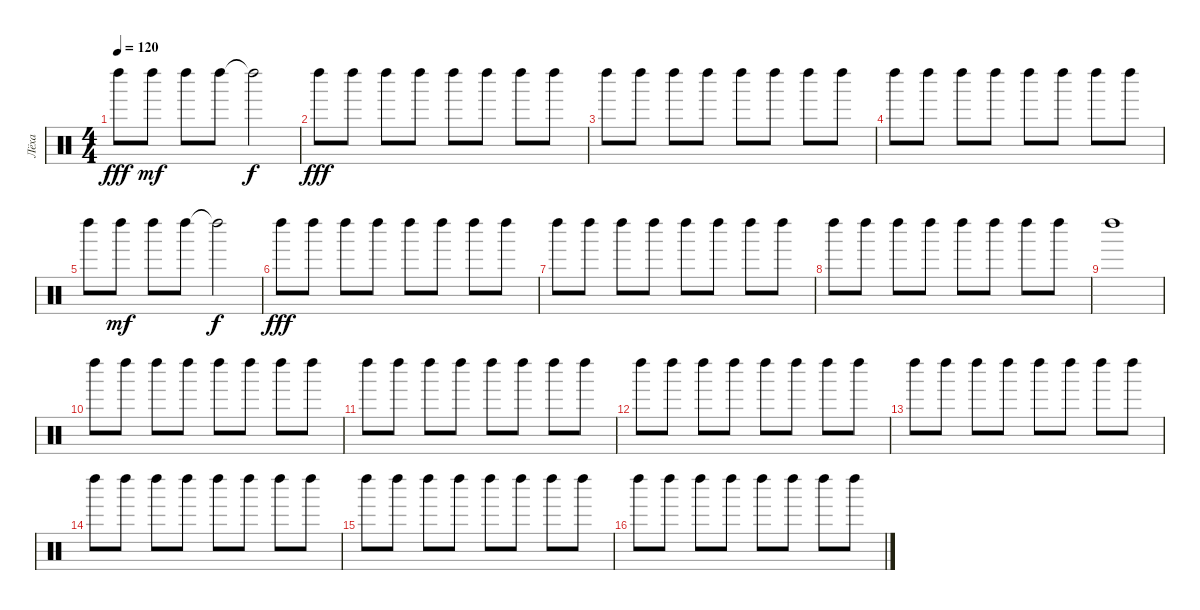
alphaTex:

\track ("Лёха" "Лёха") {instrument percussion}
\staff {score}
\articulation defaults
\ts (4 4)
\tempo 120
\clef neutral
\ks c "Left Maraca (hit)".8{dy fff} "Left Maraca (hit)".8{dy mf} "Left Maraca (hit)".8 "Left Maraca (hit)".8 "Left Maraca (hit)"{t}.2{dy f}
|
"Left Maraca (hit)".8{dy fff} "Left Maraca (hit)".8 "Left Maraca (hit)".8 "Left Maraca (hit)".8 "Left Maraca (hit)".8 "Left Maraca (hit)".8 "Left Maraca (hit)".8 "Left Maraca (hit)".8 |
"Left Maraca (hit)".8 "Left Maraca (hit)".8 "Left Maraca (hit)".8 "Left Maraca (hit)".8 "Left Maraca (hit)".8 "Left Maraca (hit)".8 "Left Maraca (hit)".8 "Left Maraca (hit)".8 |
"Left Maraca (hit)".8 "Left Maraca (hit)".8 "Left Maraca (hit)".8 "Left Maraca (hit)".8 "Left Maraca (hit)".8 "Left Maraca (hit)".8 "Left Maraca (hit)".8 "Left Maraca (hit)".8 |
"Left Maraca (hit)".8 "Left Maraca (hit)".8{dy mf} "Left Maraca (hit)".8 "Left Maraca (hit)".8 "Left Maraca (hit)"{t}.2{dy f} |
"Left Maraca (hit)".8{dy fff} "Left Maraca (hit)".8 "Left Maraca (hit)".8 "Left Maraca (hit)".8 "Left Maraca (hit)".8 "Left Maraca (hit)".8 "Left Maraca (hit)".8 "Left Maraca (hit)".8 |
"Left Maraca (hit)".8 "Left Maraca (hit)".8 "Left Maraca (hit)".8 "Left Maraca (hit)".8 "Left Maraca (hit)".8 "Left Maraca (hit)".8 "Left Maraca (hit)".8 "Left Maraca (hit)".8 |
"Left Maraca (hit)".8 "Left Maraca (hit)".8 "Left Maraca (hit)".8 "Left Maraca (hit)".8 "Left Maraca (hit)".8 "Left Maraca (hit)".8 "Left Maraca (hit)".8 "Left Maraca (hit)".8 |
"Left Maraca (hit)".1 |
"Left Maraca (hit)".8 "Left Maraca (hit)".8 "Left Maraca (hit)".8 "Left Maraca (hit)".8 "Left Maraca (hit)".8 "Left Maraca (hit)".8 "Left Maraca (hit)".8 "Left Maraca (hit)".8 |
"Left Maraca (hit)".8 "Left Maraca (hit)".8 "Left Maraca (hit)".8 "Left Maraca (hit)".8 "Left Maraca (hit)".8 "Left Maraca (hit)".8 "Left Maraca (hit)".8 "Left Maraca (hit)".8 |
"Left Maraca (hit)".8 "Left Maraca (hit)".8 "Left Maraca (hit)".8 "Left Maraca (hit)".8 "Left Maraca (hit)".8 "Left Maraca (hit)".8 "Left Maraca (hit)".8 "Left Maraca (hit)".8 |
"Left Maraca (hit)".8 "Left Maraca (hit)".8 "Left Maraca (hit)".8 "Left Maraca (hit)".8 "Left Maraca (hit)".8 "Left Maraca (hit)".8 "Left Maraca (hit)".8 "Left Maraca (hit)".8 |
"Left Maraca (hit)".8 "Left Maraca (hit)".8 "Left Maraca (hit)".8 "Left Maraca (hit)".8 "Left Maraca (hit)".8 "Left Maraca (hit)".8 "Left Maraca (hit)".8 "Left Maraca (hit)".8 |
"Left Maraca (hit)".8 "Left Maraca (hit)".8 "Left Maraca (hit)".8 "Left Maraca (hit)".8 "Left Maraca (hit)".8 "Left Maraca (hit)".8 "Left Maraca (hit)".8 "Left Maraca (hit)".8 |
"Left Maraca (hit)".8 "Left Maraca (hit)".8 "Left Maraca (hit)".8 "Left Maraca (hit)".8 "Left Maraca (hit)".8 "Left Maraca (hit)".8 "Left Maraca (hit)".8 "Left Maraca (hit)".8
